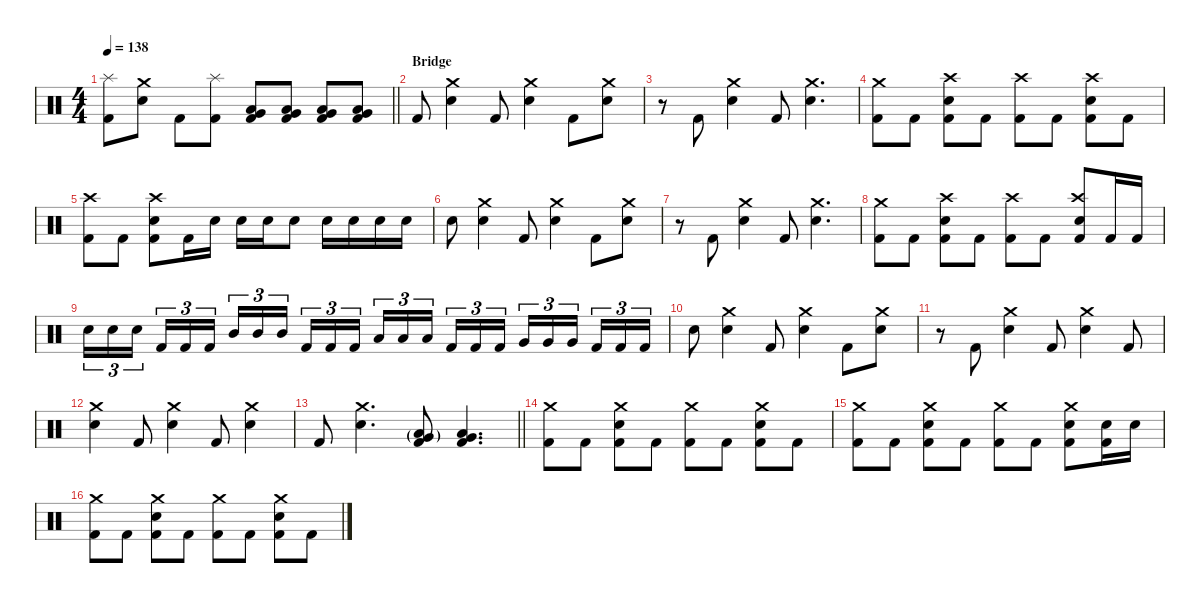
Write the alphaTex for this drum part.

\defaultSystemsLayout 4
\hideDynamics
\bracketExtendMode nobrackets
\singleTrackTrackNamePolicy hidden
\multiTrackTrackNamePolicy hidden
\firstSystemTrackNameMode fullname
\firstSystemTrackNameOrientation horizontal
\otherSystemsTrackNameOrientation horizontal
\track ("Drums" "drm.") {instrument percussion}
\staff {score}
\articulation defaults
\ts (4 4)
\tempo 138
\clef neutral
\barLineRight lightlight
\ks c
("Splash (hit)" "Kick (hit) 2").8{dy f beam Down} ("Crash medium (hit)" "Snare (hit) 2").8{beam Down} "Kick (hit) 2".8{beam Down} ("Splash (hit)" "Kick (hit) 2").8{beam Down} ("Low Tom (hit)" "Very Low Tom (hit)" "Kick (hit) 2").8{beam Up} ("Low Tom (hit)" "Very Low Tom (hit)" "Kick (hit) 2").8{beam Up} ("Low Tom (hit)" "Very Low Tom (hit)" "Kick (hit) 2").8{beam Up} ("Low Tom (hit)" "Very Low Tom (hit)" "Kick (hit) 2").8{beam Up} |
\section ("" "Bridge")
"Kick (hit) 2".8{beam Up} ("Crash medium (hit)" "Snare (hit) 2").4{beam Down} "Kick (hit) 2".8{beam Up} ("Crash medium (hit)" "Snare (hit) 2").4{beam Down} "Kick (hit) 2".8{beam Down} ("Crash medium (hit)" "Snare (hit) 2").8{beam Down} |
r.8{beam Down} "Kick (hit) 2".8{beam Up} ("Crash medium (hit)" "Snare (hit) 2").4{beam Down} "Kick (hit) 2".8{beam Up} ("Crash medium (hit)" "Snare (hit) 2").4{d beam Down} |
("Crash medium (hit)" "Kick (hit) 2").8{beam Down} "Kick (hit) 2".8{beam Down} ("Crash high (hit)" "Snare (hit) 2" "Kick (hit) 2").8{beam Down} "Kick (hit) 2".8{beam Down} ("Crash high (hit)" "Kick (hit) 2").8{beam Down} "Kick (hit) 2".8{beam Down} ("Crash high (hit)" "Snare (hit) 2" "Kick (hit) 2").8{beam Down} "Kick (hit) 2".8{beam Down} |
("Crash high (hit)" "Kick (hit) 2").8{beam Down} "Kick (hit) 2".8{beam Down} ("Crash high (hit)" "Snare (hit) 2" "Kick (hit) 2").8{beam Down} "Kick (hit) 2".16{beam Down} "Snare (hit) 2".16{beam Down} "Snare (hit) 2".16{beam Down} "Snare (hit) 2".16{beam Down} "Snare (hit) 2".8{beam Down} "Snare (hit) 2".16{beam Down} "Snare (hit) 2".16{beam Down} "Snare (hit) 2".16{beam Down} "Snare (hit) 2".16{beam Down} |
"Snare (hit) 2".8{beam Down} ("Crash medium (hit)" "Snare (hit) 2").4{beam Down} "Kick (hit) 2".8{beam Up} ("Crash medium (hit)" "Snare (hit) 2").4{beam Down} "Kick (hit) 2".8{beam Down} ("Crash medium (hit)" "Snare (hit) 2").8{beam Down} |
r.8{beam Down} "Kick (hit) 2".8{beam Up} ("Crash medium (hit)" "Snare (hit) 2").4{beam Down} "Kick (hit) 2".8{beam Up} ("Crash medium (hit)" "Snare (hit) 2").4{d beam Down} |
("Crash medium (hit)" "Kick (hit) 2").8{beam Down} "Kick (hit) 2".8{beam Down} ("Crash high (hit)" "Snare (hit) 2" "Kick (hit) 2").8{beam Down} "Kick (hit) 2".8{beam Down} ("Crash high (hit)" "Kick (hit) 2").8{beam Down} "Kick (hit) 2".8{beam Down} ("Crash high (hit)" "Snare (hit) 2" "Kick (hit) 2").8{beam Up} "Kick (hit) 2".16{beam Up} "Kick (hit) 2".16{beam Up} |
"Snare (hit) 2".16{tu (3 2) beam Down} "Snare (hit) 2".16{tu (3 2) beam Down} "Snare (hit) 2".16{tu (3 2) beam Down} "Kick (hit) 2".16{tu (3 2) beam Up} "Kick (hit) 2".16{tu (3 2) beam Up} "Kick (hit) 2".16{tu (3 2) beam Up} "Mid Tom (hit)".16{tu (3 2) beam Up} "Mid Tom (hit)".16{tu (3 2) beam Up} "Mid Tom (hit)".16{tu (3 2) beam Up} "Kick (hit) 2".16{tu (3 2) beam Up} "Kick (hit) 2".16{tu (3 2) beam Up} "Kick (hit) 2".16{tu (3 2) beam Up} "Low Tom (hit)".16{tu (3 2) beam Up} "Low Tom (hit)".16{tu (3 2) beam Up} "Low Tom (hit)".16{tu (3 2) beam Up} "Kick (hit) 2".16{tu (3 2) beam Up} "Kick (hit) 2".16{tu (3 2) beam Up} "Kick (hit) 2".16{tu (3 2) beam Up} "Very Low Tom (hit)".16{tu (3 2) beam Up} "Very Low Tom (hit)".16{tu (3 2) beam Up} "Very Low Tom (hit)".16{tu (3 2) beam Up} "Kick (hit) 2".16{tu (3 2) beam Up} "Kick (hit) 2".16{tu (3 2) beam Up} "Kick (hit) 2".16{tu (3 2) beam Up} |
"Snare (hit) 2".8{beam Down} ("Crash medium (hit)" "Snare (hit) 2").4{beam Down} "Kick (hit) 2".8{beam Up} ("Crash medium (hit)" "Snare (hit) 2").4{beam Down} "Kick (hit) 2".8{beam Down} ("Crash medium (hit)" "Snare (hit) 2").8{beam Down} |
r.8{beam Down} "Kick (hit) 2".8{beam Up} ("Crash medium (hit)" "Snare (hit) 2").4{beam Down} "Kick (hit) 2".8{beam Up} ("Crash medium (hit)" "Snare (hit) 2").4{beam Down} "Kick (hit) 2".8{beam Up} |
("Crash medium (hit)" "Snare (hit) 2").4{beam Down} "Kick (hit) 2".8{beam Up} ("Crash medium (hit)" "Snare (hit) 2").4{beam Down} "Kick (hit) 2".8{beam Up} ("Crash medium (hit)" "Snare (hit) 2").4{beam Down} |
\barLineRight lightlight "Kick (hit) 2".8{beam Up}
("Crash medium (hit)" "Snare (hit) 2").4{d beam Down} ("Low Tom (hit)"{g} "Very Low Tom (hit)"{g} "Kick (hit) 2").8{beam Up} ("Low Tom (hit)" "Very Low Tom (hit)" "Kick (hit) 2").4{d beam Up} |
\section ("" "")
("Crash medium (hit)" "Kick (hit) 2").8{beam Down} "Kick (hit) 2".8{beam Down} ("Crash medium (hit)" "Snare (hit) 2" "Kick (hit) 2").8{beam Down} "Kick (hit) 2".8{beam Down} ("Crash medium (hit)" "Kick (hit) 2").8{beam Down} "Kick (hit) 2".8{beam Down} ("Crash medium (hit)" "Snare (hit) 2" "Kick (hit) 2").8{beam Down} "Kick (hit) 2".8{beam Down} |
("Crash medium (hit)" "Kick (hit) 2").8{beam Down} "Kick (hit) 2".8{beam Down} ("Crash medium (hit)" "Snare (hit) 2" "Kick (hit) 2").8{beam Down} "Kick (hit) 2".8{beam Down} ("Crash medium (hit)" "Kick (hit) 2").8{beam Down} "Kick (hit) 2".8{beam Down} ("Crash medium (hit)" "Snare (hit) 2" "Kick (hit) 2").8{beam Down} ("Snare (hit) 2" "Kick (hit) 2").16{beam Down} "Snare (hit) 2".16{beam Down} |
("Crash medium (hit)" "Kick (hit) 2").8{beam Down} "Kick (hit) 2".8{beam Down} ("Crash medium (hit)" "Snare (hit) 2" "Kick (hit) 2").8{beam Down} "Kick (hit) 2".8{beam Down} ("Crash medium (hit)" "Kick (hit) 2").8{beam Down} "Kick (hit) 2".8{beam Down} ("Crash medium (hit)" "Snare (hit) 2" "Kick (hit) 2").8{beam Down} "Kick (hit) 2".8{beam Down}
